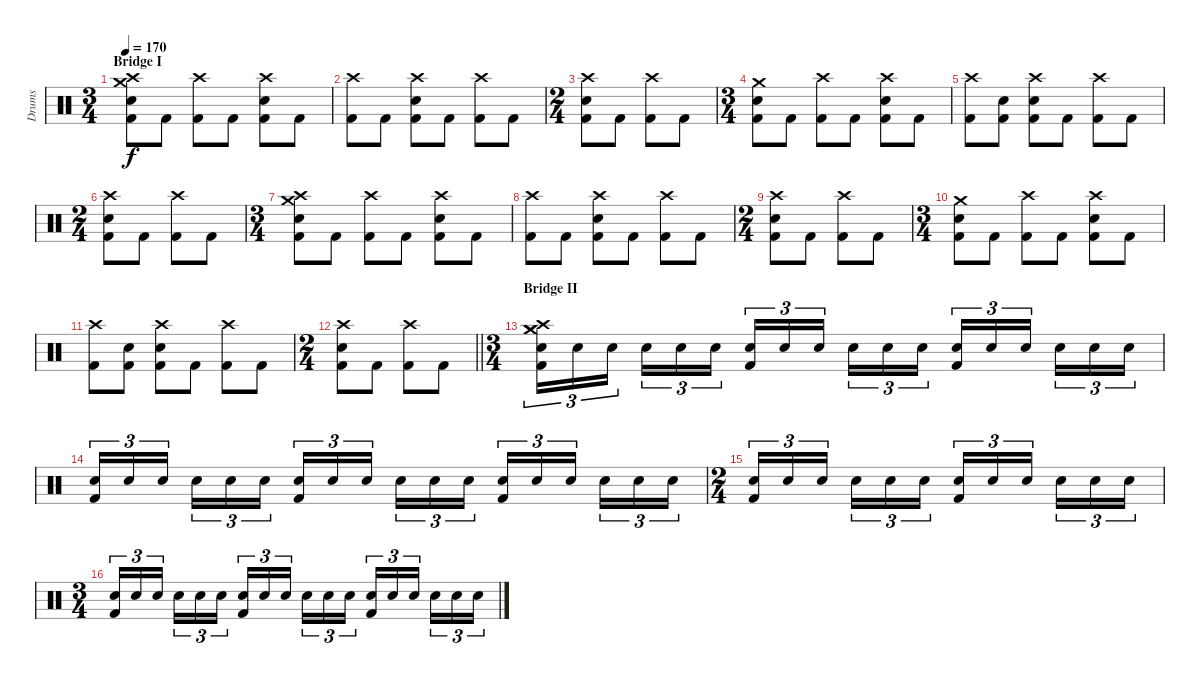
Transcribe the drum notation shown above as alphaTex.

\track ("Drums" "Drums") {instrument percussion}
\staff {score}
\articulation defaults
\ts (3 4)
\section ("" "Bridge I")
\tempo 170
\clef neutral
\ks c
("Crash medium (hit)" "Crash high (hit)" "Electric Snare (hit)" "Kick (hit) 2").8{dy f} "Kick (hit) 2".8 ("Crash high (hit)" "Kick (hit) 2").8 "Kick (hit) 2".8 ("Crash high (hit)" "Electric Snare (hit)" "Kick (hit) 2").8 "Kick (hit) 2".8 |
("Crash high (hit)" "Kick (hit) 2").8 "Kick (hit) 2".8 ("Crash high (hit)" "Electric Snare (hit)" "Kick (hit) 2").8 "Kick (hit) 2".8 ("Crash high (hit)" "Kick (hit) 2").8 "Kick (hit) 2".8 |
\ts (2 4)
("Crash high (hit)" "Electric Snare (hit)" "Kick (hit) 2").8 "Kick (hit) 2".8 ("Crash high (hit)" "Kick (hit) 2").8 "Kick (hit) 2".8 |
\ts (3 4)
("Crash medium (hit)" "Electric Snare (hit)" "Kick (hit) 2").8 "Kick (hit) 2".8 ("Crash high (hit)" "Kick (hit) 2").8 "Kick (hit) 2".8 ("Crash high (hit)" "Electric Snare (hit)" "Kick (hit) 2").8 "Kick (hit) 2".8 |
("Crash high (hit)" "Kick (hit) 2").8 ("Electric Snare (hit)" "Kick (hit) 2").8 ("Crash high (hit)" "Electric Snare (hit)" "Kick (hit) 2").8 "Kick (hit) 2".8 ("Crash high (hit)" "Kick (hit) 2").8 "Kick (hit) 2".8 |
\ts (2 4)
("Crash high (hit)" "Electric Snare (hit)" "Kick (hit) 2").8 "Kick (hit) 2".8 ("Crash high (hit)" "Kick (hit) 2").8 "Kick (hit) 2".8 |
\ts (3 4)
("Crash medium (hit)" "Crash high (hit)" "Electric Snare (hit)" "Kick (hit) 2").8 "Kick (hit) 2".8 ("Crash high (hit)" "Kick (hit) 2").8 "Kick (hit) 2".8 ("Crash high (hit)" "Electric Snare (hit)" "Kick (hit) 2").8 "Kick (hit) 2".8 |
("Crash high (hit)" "Kick (hit) 2").8 "Kick (hit) 2".8 ("Crash high (hit)" "Electric Snare (hit)" "Kick (hit) 2").8 "Kick (hit) 2".8 ("Crash high (hit)" "Kick (hit) 2").8 "Kick (hit) 2".8 |
\ts (2 4)
("Crash high (hit)" "Electric Snare (hit)" "Kick (hit) 2").8 "Kick (hit) 2".8 ("Crash high (hit)" "Kick (hit) 2").8 "Kick (hit) 2".8 |
\ts (3 4)
("Crash medium (hit)" "Electric Snare (hit)" "Kick (hit) 2").8 "Kick (hit) 2".8 ("Crash high (hit)" "Kick (hit) 2").8 "Kick (hit) 2".8 ("Crash high (hit)" "Electric Snare (hit)" "Kick (hit) 2").8 "Kick (hit) 2".8 |
("Crash high (hit)" "Kick (hit) 2").8 ("Electric Snare (hit)" "Kick (hit) 2").8 ("Crash high (hit)" "Electric Snare (hit)" "Kick (hit) 2").8 "Kick (hit) 2".8 ("Crash high (hit)" "Kick (hit) 2").8 "Kick (hit) 2".8 |
\ts (2 4)
\barLineRight lightlight
("Crash high (hit)" "Electric Snare (hit)" "Kick (hit) 2").8 "Kick (hit) 2".8 ("Crash high (hit)" "Kick (hit) 2").8 "Kick (hit) 2".8 |
\ts (3 4)
\section ("" "Bridge II")
("Crash medium (hit)" "Crash high (hit)" "Crash medium (hit)" "Electric Snare (hit)" "Kick (hit) 2").16{tu (3 2) volume 9} "Electric Snare (hit)".16{tu (3 2)} "Electric Snare (hit)".16{tu (3 2) beam splitsecondary} "Electric Snare (hit)".16{tu (3 2)} "Electric Snare (hit)".16{tu (3 2)} "Electric Snare (hit)".16{tu (3 2)} ("Electric Snare (hit)" "Kick (hit) 2").16{tu (3 2)} "Electric Snare (hit)".16{tu (3 2)} "Electric Snare (hit)".16{tu (3 2) beam splitsecondary} "Electric Snare (hit)".16{tu (3 2)} "Electric Snare (hit)".16{tu (3 2)} "Electric Snare (hit)".16{tu (3 2)} ("Electric Snare (hit)" "Kick (hit) 2").16{tu (3 2)} "Electric Snare (hit)".16{tu (3 2)} "Electric Snare (hit)".16{tu (3 2) beam splitsecondary} "Electric Snare (hit)".16{tu (3 2)} "Electric Snare (hit)".16{tu (3 2)} "Electric Snare (hit)".16{tu (3 2)} |
("Electric Snare (hit)" "Kick (hit) 2").16{tu (3 2)} "Electric Snare (hit)".16{tu (3 2)} "Electric Snare (hit)".16{tu (3 2) beam splitsecondary} "Electric Snare (hit)".16{tu (3 2)} "Electric Snare (hit)".16{tu (3 2)} "Electric Snare (hit)".16{tu (3 2)} ("Electric Snare (hit)" "Kick (hit) 2").16{tu (3 2)} "Electric Snare (hit)".16{tu (3 2)} "Electric Snare (hit)".16{tu (3 2) beam splitsecondary} "Electric Snare (hit)".16{tu (3 2)} "Electric Snare (hit)".16{tu (3 2)} "Electric Snare (hit)".16{tu (3 2)} ("Electric Snare (hit)" "Kick (hit) 2").16{tu (3 2)} "Electric Snare (hit)".16{tu (3 2)} "Electric Snare (hit)".16{tu (3 2) beam splitsecondary} "Electric Snare (hit)".16{tu (3 2)} "Electric Snare (hit)".16{tu (3 2)} "Electric Snare (hit)".16{tu (3 2)} |
\ts (2 4)
("Electric Snare (hit)" "Kick (hit) 2").16{tu (3 2)} "Electric Snare (hit)".16{tu (3 2)} "Electric Snare (hit)".16{tu (3 2) beam splitsecondary} "Electric Snare (hit)".16{tu (3 2)} "Electric Snare (hit)".16{tu (3 2)} "Electric Snare (hit)".16{tu (3 2)} ("Electric Snare (hit)" "Kick (hit) 2").16{tu (3 2)} "Electric Snare (hit)".16{tu (3 2)} "Electric Snare (hit)".16{tu (3 2) beam splitsecondary} "Electric Snare (hit)".16{tu (3 2)} "Electric Snare (hit)".16{tu (3 2)} "Electric Snare (hit)".16{tu (3 2)} |
\ts (3 4)
("Electric Snare (hit)" "Kick (hit) 2").16{tu (3 2)} "Electric Snare (hit)".16{tu (3 2)} "Electric Snare (hit)".16{tu (3 2) beam splitsecondary} "Electric Snare (hit)".16{tu (3 2)} "Electric Snare (hit)".16{tu (3 2)} "Electric Snare (hit)".16{tu (3 2)} ("Electric Snare (hit)" "Kick (hit) 2").16{tu (3 2)} "Electric Snare (hit)".16{tu (3 2)} "Electric Snare (hit)".16{tu (3 2) beam splitsecondary} "Electric Snare (hit)".16{tu (3 2)} "Electric Snare (hit)".16{tu (3 2)} "Electric Snare (hit)".16{tu (3 2)} ("Electric Snare (hit)" "Kick (hit) 2").16{tu (3 2)} "Electric Snare (hit)".16{tu (3 2)} "Electric Snare (hit)".16{tu (3 2) beam splitsecondary} "Electric Snare (hit)".16{tu (3 2)} "Electric Snare (hit)".16{tu (3 2)} "Electric Snare (hit)".16{tu (3 2)}
